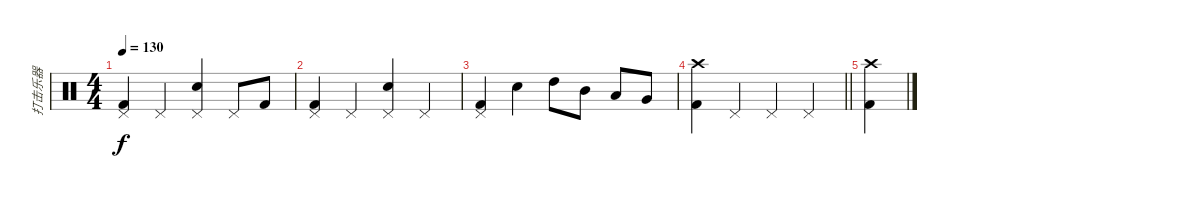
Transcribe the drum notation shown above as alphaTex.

\track ("打击乐器" "打击乐器") {instrument percussion}
\staff {score}
\articulation defaults
\ts (4 4)
\tempo 130
\clef neutral
\ks c
("Pedal Hi-Hat (hit)" "Kick (hit) 2").4{dy f} "Pedal Hi-Hat (hit)".4 ("Pedal Hi-Hat (hit)" "Snare (hit) 2").4 "Pedal Hi-Hat (hit)".8 "Kick (hit) 2".8 |
("Pedal Hi-Hat (hit)" "Kick (hit) 2").4 "Pedal Hi-Hat (hit)".4 ("Pedal Hi-Hat (hit)" "Snare (hit) 2").4 "Pedal Hi-Hat (hit)".4 |
("Pedal Hi-Hat (hit)" "Kick (hit) 2").4 "Snare (hit) 2".4 "High Tom (hit)".8 "Mid Tom (hit)".8 "Low Tom (hit)".8 "Very Low Tom (hit)".8 |
\barLineRight lightlight
("Crash high (hit)" "Kick (hit) 2").4 "Pedal Hi-Hat (hit)".4 "Pedal Hi-Hat (hit)".4 "Pedal Hi-Hat (hit)".4 |
("Crash high (hit)" "Kick (hit) 2").4
